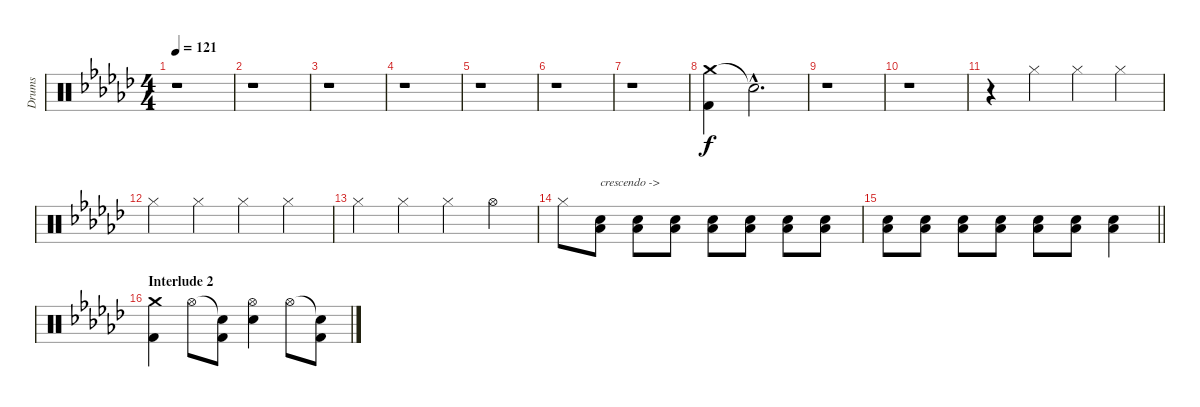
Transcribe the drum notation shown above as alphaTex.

\track ("Drums" "Drums") {instrument percussion}
\staff {score}
\articulation defaults
\ts (4 4)
\tempo 121
\clef neutral
\ks ebminor
r.1{dy f} |
r.1 |
r.1 |
r.1 |
r.1 |
r.1 |
r.1 |
("Crash medium (hit)" "Kick (hit) 2").4 "Snare (hit)"{hac t}.2{d} |
r.1 |
r.1 |
r.4 "Hi-Hat (closed)".4 "Hi-Hat (closed)".4 "Hi-Hat (closed)".4 |
"Hi-Hat (closed)".4 "Hi-Hat (closed)".4 "Hi-Hat (closed)".4 "Hi-Hat (closed)".4 |
"Hi-Hat (closed)".4 "Hi-Hat (closed)".4 "Hi-Hat (closed)".4 "Hi-Hat (open)".4 |
"Hi-Hat (closed)".8 ("Electric Snare (hit)" "Low Floor Tom (hit)").8{txt "crescendo ->"} ("Electric Snare (hit)" "Low Floor Tom (hit)").8 ("Electric Snare (hit)" "Low Floor Tom (hit)").8 ("Electric Snare (hit)" "Low Floor Tom (hit)").8 ("Electric Snare (hit)" "Low Floor Tom (hit)").8 ("Electric Snare (hit)" "Low Floor Tom (hit)").8 ("Electric Snare (hit)" "Low Floor Tom (hit)").8 |
\barLineRight lightlight
("Electric Snare (hit)" "Low Floor Tom (hit)").8 ("Electric Snare (hit)" "Low Floor Tom (hit)").8 ("Electric Snare (hit)" "Low Floor Tom (hit)").8 ("Electric Snare (hit)" "Low Floor Tom (hit)").8 ("Electric Snare (hit)" "Low Floor Tom (hit)").8 ("Electric Snare (hit)" "Low Floor Tom (hit)").8 ("Electric Snare (hit)" "Low Floor Tom (hit)").4 |
\section ("" "Interlude 2")
("Crash medium (hit)" "Kick (hit) 2").4 "Hi-Hat (open)".8 ("Snare (hit)"{t} "Kick (hit) 2").8 ("Hi-Hat (open)" "Electric Snare (hit)").4 "Hi-Hat (open)".8 ("Snare (hit)"{t} "Kick (hit) 2").8
